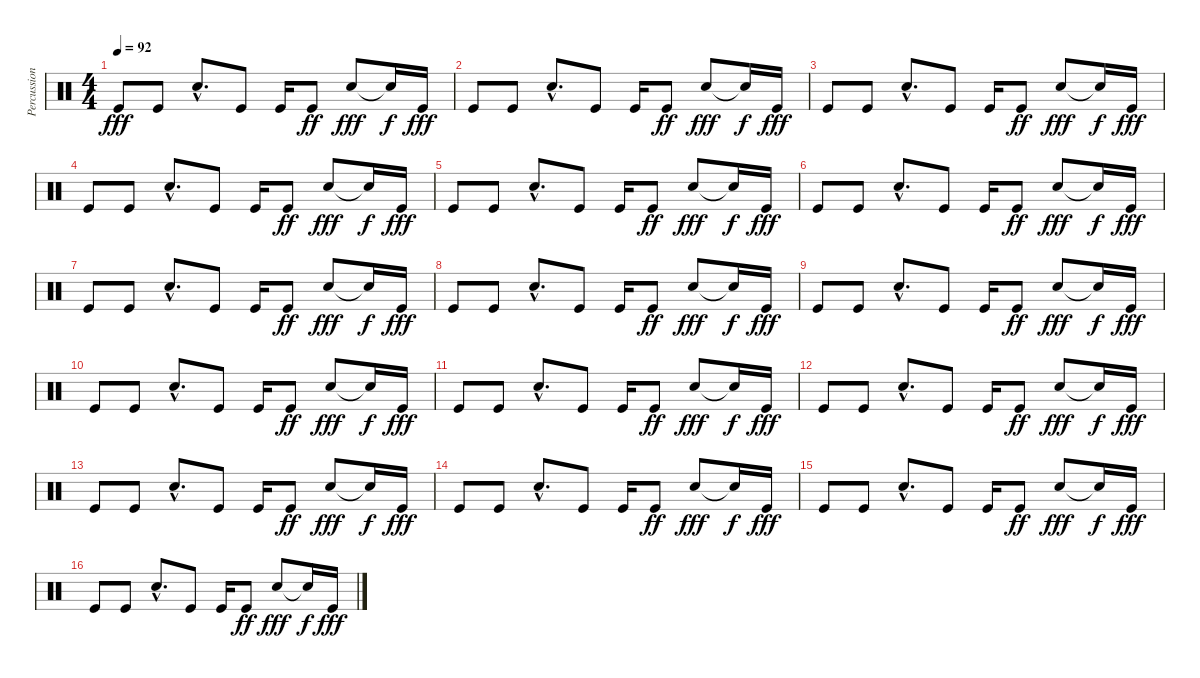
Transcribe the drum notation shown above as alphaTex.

\track ("Percussion" "Percussion") {instrument percussion}
\staff {score}
\articulation defaults
\ts (4 4)
\tempo 92
\clef neutral
\ks c "Kick (hit)".8{dy fff} "Kick (hit)".8 "Electric Snare (hit)"{hac}.8{d} "Kick (hit)".8 "Kick (hit)".16 "Kick (hit)".8{dy ff} "Electric Snare (hit)".8{dy fff} "Snare (hit)"{t}.16{dy f} "Kick (hit)".16{dy fff}
|
"Kick (hit)".8 "Kick (hit)".8 "Electric Snare (hit)"{hac}.8{d} "Kick (hit)".8 "Kick (hit)".16 "Kick (hit)".8{dy ff} "Electric Snare (hit)".8{dy fff} "Snare (hit)"{t}.16{dy f} "Kick (hit)".16{dy fff} |
"Kick (hit)".8 "Kick (hit)".8 "Electric Snare (hit)"{hac}.8{d} "Kick (hit)".8 "Kick (hit)".16 "Kick (hit)".8{dy ff} "Electric Snare (hit)".8{dy fff} "Snare (hit)"{t}.16{dy f} "Kick (hit)".16{dy fff} |
"Kick (hit)".8 "Kick (hit)".8 "Electric Snare (hit)"{hac}.8{d} "Kick (hit)".8 "Kick (hit)".16 "Kick (hit)".8{dy ff} "Electric Snare (hit)".8{dy fff} "Snare (hit)"{t}.16{dy f} "Kick (hit)".16{dy fff} |
"Kick (hit)".8 "Kick (hit)".8 "Electric Snare (hit)"{hac}.8{d} "Kick (hit)".8 "Kick (hit)".16 "Kick (hit)".8{dy ff} "Electric Snare (hit)".8{dy fff} "Snare (hit)"{t}.16{dy f} "Kick (hit)".16{dy fff} |
"Kick (hit)".8 "Kick (hit)".8 "Electric Snare (hit)"{hac}.8{d} "Kick (hit)".8 "Kick (hit)".16 "Kick (hit)".8{dy ff} "Electric Snare (hit)".8{dy fff} "Snare (hit)"{t}.16{dy f} "Kick (hit)".16{dy fff} |
"Kick (hit)".8 "Kick (hit)".8 "Electric Snare (hit)"{hac}.8{d} "Kick (hit)".8 "Kick (hit)".16 "Kick (hit)".8{dy ff} "Electric Snare (hit)".8{dy fff} "Snare (hit)"{t}.16{dy f} "Kick (hit)".16{dy fff} |
"Kick (hit)".8 "Kick (hit)".8 "Electric Snare (hit)"{hac}.8{d} "Kick (hit)".8 "Kick (hit)".16 "Kick (hit)".8{dy ff} "Electric Snare (hit)".8{dy fff} "Snare (hit)"{t}.16{dy f} "Kick (hit)".16{dy fff} |
"Kick (hit)".8 "Kick (hit)".8 "Electric Snare (hit)"{hac}.8{d} "Kick (hit)".8 "Kick (hit)".16 "Kick (hit)".8{dy ff} "Electric Snare (hit)".8{dy fff} "Snare (hit)"{t}.16{dy f} "Kick (hit)".16{dy fff} |
"Kick (hit)".8 "Kick (hit)".8 "Electric Snare (hit)"{hac}.8{d} "Kick (hit)".8 "Kick (hit)".16 "Kick (hit)".8{dy ff} "Electric Snare (hit)".8{dy fff} "Snare (hit)"{t}.16{dy f} "Kick (hit)".16{dy fff} |
"Kick (hit)".8 "Kick (hit)".8 "Electric Snare (hit)"{hac}.8{d} "Kick (hit)".8 "Kick (hit)".16 "Kick (hit)".8{dy ff} "Electric Snare (hit)".8{dy fff} "Snare (hit)"{t}.16{dy f} "Kick (hit)".16{dy fff} |
"Kick (hit)".8 "Kick (hit)".8 "Electric Snare (hit)"{hac}.8{d} "Kick (hit)".8 "Kick (hit)".16 "Kick (hit)".8{dy ff} "Electric Snare (hit)".8{dy fff} "Snare (hit)"{t}.16{dy f} "Kick (hit)".16{dy fff} |
"Kick (hit)".8 "Kick (hit)".8 "Electric Snare (hit)"{hac}.8{d} "Kick (hit)".8 "Kick (hit)".16 "Kick (hit)".8{dy ff} "Electric Snare (hit)".8{dy fff} "Snare (hit)"{t}.16{dy f} "Kick (hit)".16{dy fff} |
"Kick (hit)".8 "Kick (hit)".8 "Electric Snare (hit)"{hac}.8{d} "Kick (hit)".8 "Kick (hit)".16 "Kick (hit)".8{dy ff} "Electric Snare (hit)".8{dy fff} "Snare (hit)"{t}.16{dy f} "Kick (hit)".16{dy fff} |
"Kick (hit)".8 "Kick (hit)".8 "Electric Snare (hit)"{hac}.8{d} "Kick (hit)".8 "Kick (hit)".16 "Kick (hit)".8{dy ff} "Electric Snare (hit)".8{dy fff} "Snare (hit)"{t}.16{dy f} "Kick (hit)".16{dy fff} |
"Kick (hit)".8 "Kick (hit)".8 "Electric Snare (hit)"{hac}.8{d} "Kick (hit)".8 "Kick (hit)".16 "Kick (hit)".8{dy ff} "Electric Snare (hit)".8{dy fff} "Snare (hit)"{t}.16{dy f} "Kick (hit)".16{dy fff}
